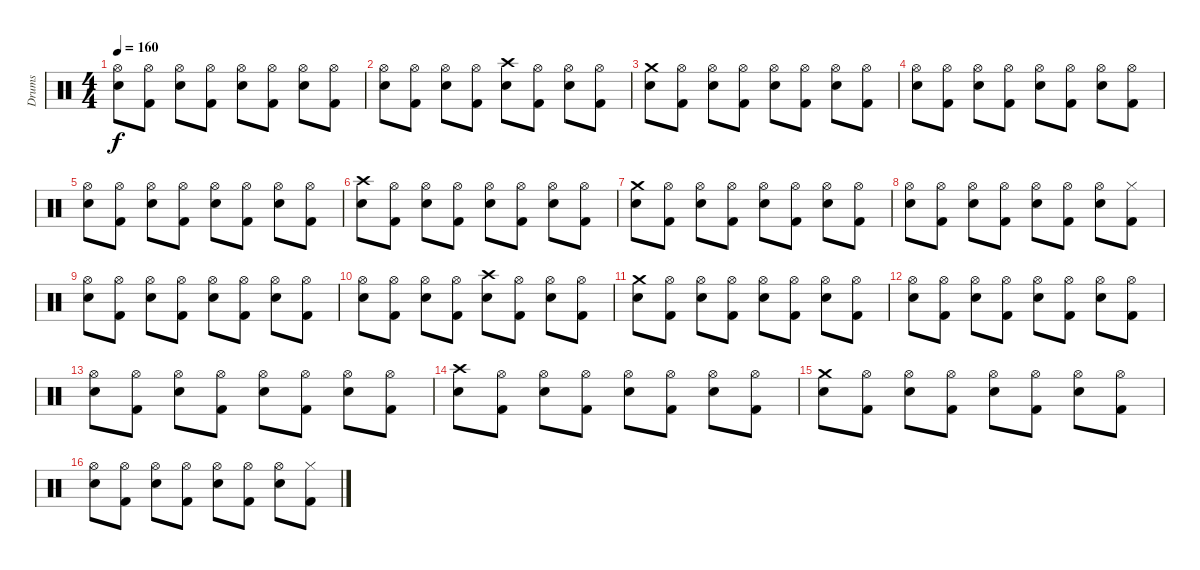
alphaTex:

\track ("Drums" "Drums") {instrument percussion}
\staff {score}
\articulation defaults
\ts (4 4)
\tempo 160
\clef neutral
\ks c
("Hi-Hat (open)" "Snare (hit) 2").8{dy f} ("Hi-Hat (open)" "Kick (hit) 2").8 ("Hi-Hat (open)" "Snare (hit) 2").8 ("Hi-Hat (open)" "Kick (hit) 2").8 ("Hi-Hat (open)" "Snare (hit) 2").8 ("Hi-Hat (open)" "Kick (hit) 2").8 ("Hi-Hat (open)" "Snare (hit) 2").8 ("Hi-Hat (open)" "Kick (hit) 2").8 |
("Hi-Hat (open)" "Snare (hit) 2").8 ("Hi-Hat (open)" "Kick (hit) 2").8 ("Hi-Hat (open)" "Snare (hit) 2").8 ("Hi-Hat (open)" "Kick (hit) 2").8 ("Crash high (hit)" "Snare (hit) 2").8 ("Hi-Hat (open)" "Kick (hit) 2").8 ("Hi-Hat (open)" "Snare (hit) 2").8 ("Hi-Hat (open)" "Kick (hit) 2").8 |
("Crash medium (hit)" "Snare (hit) 2").8 ("Hi-Hat (open)" "Kick (hit) 2").8 ("Hi-Hat (open)" "Snare (hit) 2").8 ("Hi-Hat (open)" "Kick (hit) 2").8 ("Hi-Hat (open)" "Snare (hit) 2").8 ("Hi-Hat (open)" "Kick (hit) 2").8 ("Hi-Hat (open)" "Snare (hit) 2").8 ("Hi-Hat (open)" "Kick (hit) 2").8 |
("Hi-Hat (open)" "Snare (hit) 2").8 ("Hi-Hat (open)" "Kick (hit) 2").8 ("Hi-Hat (open)" "Snare (hit) 2").8 ("Hi-Hat (open)" "Kick (hit) 2").8 ("Hi-Hat (open)" "Snare (hit) 2").8 ("Hi-Hat (open)" "Kick (hit) 2").8 ("Hi-Hat (open)" "Snare (hit) 2").8 ("Hi-Hat (open)" "Kick (hit) 2").8 |
("Hi-Hat (open)" "Snare (hit) 2").8 ("Hi-Hat (open)" "Kick (hit) 2").8 ("Hi-Hat (open)" "Snare (hit) 2").8 ("Hi-Hat (open)" "Kick (hit) 2").8 ("Hi-Hat (open)" "Snare (hit) 2").8 ("Hi-Hat (open)" "Kick (hit) 2").8 ("Hi-Hat (open)" "Snare (hit) 2").8 ("Hi-Hat (open)" "Kick (hit) 2").8 |
("Snare (hit) 2" "Crash high (hit)").8 ("Hi-Hat (open)" "Kick (hit) 2").8 ("Hi-Hat (open)" "Snare (hit) 2").8 ("Hi-Hat (open)" "Kick (hit) 2").8 ("Hi-Hat (open)" "Snare (hit) 2").8 ("Hi-Hat (open)" "Kick (hit) 2").8 ("Hi-Hat (open)" "Snare (hit) 2").8 ("Hi-Hat (open)" "Kick (hit) 2").8 |
("Crash medium (hit)" "Snare (hit) 2").8 ("Hi-Hat (open)" "Kick (hit) 2").8 ("Hi-Hat (open)" "Snare (hit) 2").8 ("Hi-Hat (open)" "Kick (hit) 2").8 ("Hi-Hat (open)" "Snare (hit) 2").8 ("Hi-Hat (open)" "Kick (hit) 2").8 ("Hi-Hat (open)" "Snare (hit) 2").8 ("Hi-Hat (open)" "Kick (hit) 2").8 |
("Hi-Hat (open)" "Snare (hit) 2").8 ("Hi-Hat (open)" "Kick (hit) 2").8 ("Hi-Hat (open)" "Snare (hit) 2").8 ("Hi-Hat (open)" "Kick (hit) 2").8 ("Hi-Hat (open)" "Snare (hit) 2").8 ("Hi-Hat (open)" "Kick (hit) 2").8 ("Hi-Hat (open)" "Snare (hit) 2").8 ("Hi-Hat (closed)" "Kick (hit) 2").8 |
("Hi-Hat (open)" "Snare (hit) 2").8 ("Hi-Hat (open)" "Kick (hit) 2").8 ("Hi-Hat (open)" "Snare (hit) 2").8 ("Hi-Hat (open)" "Kick (hit) 2").8 ("Hi-Hat (open)" "Snare (hit) 2").8 ("Hi-Hat (open)" "Kick (hit) 2").8 ("Hi-Hat (open)" "Snare (hit) 2").8 ("Hi-Hat (open)" "Kick (hit) 2").8 |
("Hi-Hat (open)" "Snare (hit) 2").8 ("Hi-Hat (open)" "Kick (hit) 2").8 ("Hi-Hat (open)" "Snare (hit) 2").8 ("Hi-Hat (open)" "Kick (hit) 2").8 ("Crash high (hit)" "Snare (hit) 2").8 ("Hi-Hat (open)" "Kick (hit) 2").8 ("Hi-Hat (open)" "Snare (hit) 2").8 ("Hi-Hat (open)" "Kick (hit) 2").8 |
("Crash medium (hit)" "Snare (hit) 2").8 ("Hi-Hat (open)" "Kick (hit) 2").8 ("Hi-Hat (open)" "Snare (hit) 2").8 ("Hi-Hat (open)" "Kick (hit) 2").8 ("Hi-Hat (open)" "Snare (hit) 2").8 ("Hi-Hat (open)" "Kick (hit) 2").8 ("Hi-Hat (open)" "Snare (hit) 2").8 ("Hi-Hat (open)" "Kick (hit) 2").8 |
("Hi-Hat (open)" "Snare (hit) 2").8 ("Hi-Hat (open)" "Kick (hit) 2").8 ("Hi-Hat (open)" "Snare (hit) 2").8 ("Hi-Hat (open)" "Kick (hit) 2").8 ("Hi-Hat (open)" "Snare (hit) 2").8 ("Hi-Hat (open)" "Kick (hit) 2").8 ("Hi-Hat (open)" "Snare (hit) 2").8 ("Hi-Hat (open)" "Kick (hit) 2").8 |
("Hi-Hat (open)" "Snare (hit) 2").8 ("Hi-Hat (open)" "Kick (hit) 2").8 ("Hi-Hat (open)" "Snare (hit) 2").8 ("Hi-Hat (open)" "Kick (hit) 2").8 ("Hi-Hat (open)" "Snare (hit) 2").8 ("Hi-Hat (open)" "Kick (hit) 2").8 ("Hi-Hat (open)" "Snare (hit) 2").8 ("Hi-Hat (open)" "Kick (hit) 2").8 |
("Snare (hit) 2" "Crash high (hit)").8 ("Hi-Hat (open)" "Kick (hit) 2").8 ("Hi-Hat (open)" "Snare (hit) 2").8 ("Hi-Hat (open)" "Kick (hit) 2").8 ("Hi-Hat (open)" "Snare (hit) 2").8 ("Hi-Hat (open)" "Kick (hit) 2").8 ("Hi-Hat (open)" "Snare (hit) 2").8 ("Hi-Hat (open)" "Kick (hit) 2").8 |
("Crash medium (hit)" "Snare (hit) 2").8 ("Hi-Hat (open)" "Kick (hit) 2").8 ("Hi-Hat (open)" "Snare (hit) 2").8 ("Hi-Hat (open)" "Kick (hit) 2").8 ("Hi-Hat (open)" "Snare (hit) 2").8 ("Hi-Hat (open)" "Kick (hit) 2").8 ("Hi-Hat (open)" "Snare (hit) 2").8 ("Hi-Hat (open)" "Kick (hit) 2").8 |
("Hi-Hat (open)" "Snare (hit) 2").8 ("Hi-Hat (open)" "Kick (hit) 2").8 ("Hi-Hat (open)" "Snare (hit) 2").8 ("Hi-Hat (open)" "Kick (hit) 2").8 ("Hi-Hat (open)" "Snare (hit) 2").8 ("Hi-Hat (open)" "Kick (hit) 2").8 ("Hi-Hat (open)" "Snare (hit) 2").8 ("Hi-Hat (closed)" "Kick (hit) 2").8
